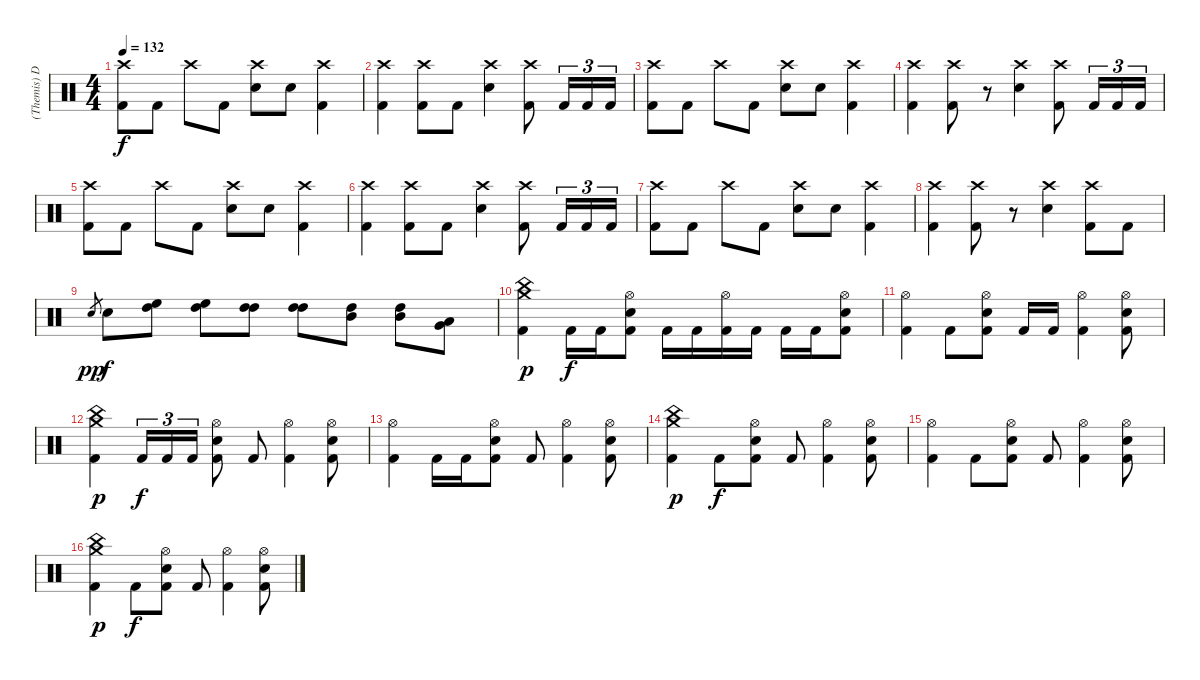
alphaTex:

\track ("(Themis) Drums" "(Themis) D") {instrument percussion}
\staff {score}
\articulation defaults
\ts (4 4)
\tempo 132
\clef neutral
\ks c
("Crash high (hit)" "Kick (hit) 2").8{dy f} "Kick (hit) 2".8 "Crash high (hit)".8 "Kick (hit) 2".8 ("Crash high (hit)" "Electric Snare (hit)").8 "Electric Snare (hit)".8 ("Crash high (hit)" "Kick (hit) 2").4 |
("Crash high (hit)" "Kick (hit) 2").4 ("Crash high (hit)" "Kick (hit) 2").8 "Kick (hit) 2".8 ("Crash high (hit)" "Electric Snare (hit)").4 ("Crash high (hit)" "Kick (hit) 2").8 "Kick (hit) 2".16{tu (3 2)} "Kick (hit) 2".16{tu (3 2)} "Kick (hit) 2".16{tu (3 2)} |
("Crash high (hit)" "Kick (hit) 2").8 "Kick (hit) 2".8 "Crash high (hit)".8 "Kick (hit) 2".8 ("Crash high (hit)" "Electric Snare (hit)").8 "Electric Snare (hit)".8 ("Crash high (hit)" "Kick (hit) 2").4 |
("Crash high (hit)" "Kick (hit) 2").4 ("Crash high (hit)" "Kick (hit) 2").8 r.8 ("Crash high (hit)" "Electric Snare (hit)").4 ("Crash high (hit)" "Kick (hit) 2").8 "Kick (hit) 2".16{tu (3 2)} "Kick (hit) 2".16{tu (3 2)} "Kick (hit) 2".16{tu (3 2)} |
("Crash high (hit)" "Kick (hit) 2").8 "Kick (hit) 2".8 "Crash high (hit)".8 "Kick (hit) 2".8 ("Crash high (hit)" "Electric Snare (hit)").8 "Electric Snare (hit)".8 ("Crash high (hit)" "Kick (hit) 2").4 |
("Crash high (hit)" "Kick (hit) 2").4 ("Crash high (hit)" "Kick (hit) 2").8 "Kick (hit) 2".8 ("Crash high (hit)" "Electric Snare (hit)").4 ("Crash high (hit)" "Kick (hit) 2").8 "Kick (hit) 2".16{tu (3 2)} "Kick (hit) 2".16{tu (3 2)} "Kick (hit) 2".16{tu (3 2)} |
("Crash high (hit)" "Kick (hit) 2").8 "Kick (hit) 2".8 "Crash high (hit)".8 "Kick (hit) 2".8 ("Crash high (hit)" "Electric Snare (hit)").8 "Electric Snare (hit)".8 ("Crash high (hit)" "Kick (hit) 2").4 |
("Crash high (hit)" "Kick (hit) 2").4 ("Crash high (hit)" "Kick (hit) 2").8 r.8 ("Crash high (hit)" "Electric Snare (hit)").4 ("Crash high (hit)" "Kick (hit) 2").8 "Kick (hit) 2".8 |
"Electric Snare (hit)".8{gr dy pp} "Electric Snare (hit)".8{dy f} ("High Floor Tom (hit)" "High Tom (hit)").8 ("High Floor Tom (hit)" "High Tom (hit)").8 ("High Tom (hit)" "High Tom (hit)").8 ("High Tom (hit)" "High Tom (hit)").8 ("Mid Tom (hit)" "High Tom (hit)").8 ("Mid Tom (hit)" "High Tom (hit)").8 ("Low Tom (hit)" "Very Low Tom (hit)").8 |
("Crash medium (hit)" "China (hit)" "Kick (hit) 2").4{dy p} "Kick (hit) 2".16{dy f} "Kick (hit) 2".16 ("Hi-Hat (open)" "Electric Snare (hit)" "Kick (hit) 2").8 "Kick (hit) 2".16 "Kick (hit) 2".16 ("Hi-Hat (open)" "Kick (hit) 2").16 "Kick (hit) 2".16 "Kick (hit) 2".16 "Kick (hit) 2".16 ("Hi-Hat (open)" "Electric Snare (hit)" "Kick (hit) 2").8 |
("Hi-Hat (open)" "Kick (hit) 2").4 "Kick (hit) 2".8 ("Hi-Hat (open)" "Electric Snare (hit)" "Kick (hit) 2").8 "Kick (hit) 2".16 "Kick (hit) 2".16 ("Hi-Hat (open)" "Kick (hit) 2").4 ("Hi-Hat (open)" "Electric Snare (hit)" "Kick (hit) 2").8 |
("Crash medium (hit)" "China (hit)" "Kick (hit) 2").4{dy p} "Kick (hit) 2".16{tu (3 2) dy f} "Kick (hit) 2".16{tu (3 2)} "Kick (hit) 2".16{tu (3 2)} ("Hi-Hat (open)" "Electric Snare (hit)" "Kick (hit) 2").8 "Kick (hit) 2".8 ("Hi-Hat (open)" "Kick (hit) 2").4 ("Hi-Hat (open)" "Electric Snare (hit)" "Kick (hit) 2").8 |
("Hi-Hat (open)" "Kick (hit) 2").4 "Kick (hit) 2".16 "Kick (hit) 2".16 ("Hi-Hat (open)" "Electric Snare (hit)" "Kick (hit) 2").8 "Kick (hit) 2".8 ("Hi-Hat (open)" "Kick (hit) 2").4 ("Hi-Hat (open)" "Electric Snare (hit)" "Kick (hit) 2").8 |
("Crash medium (hit)" "China (hit)" "Kick (hit) 2").4{dy p} "Kick (hit) 2".8{dy f} ("Hi-Hat (open)" "Electric Snare (hit)" "Kick (hit) 2").8 "Kick (hit) 2".8 ("Hi-Hat (open)" "Kick (hit) 2").4 ("Hi-Hat (open)" "Electric Snare (hit)" "Kick (hit) 2").8 |
("Hi-Hat (open)" "Kick (hit) 2").4 "Kick (hit) 2".8 ("Hi-Hat (open)" "Electric Snare (hit)" "Kick (hit) 2").8 "Kick (hit) 2".8 ("Hi-Hat (open)" "Kick (hit) 2").4 ("Hi-Hat (open)" "Electric Snare (hit)" "Kick (hit) 2").8 |
("Crash medium (hit)" "China (hit)" "Kick (hit) 2").4{dy p} "Kick (hit) 2".8{dy f} ("Hi-Hat (open)" "Electric Snare (hit)" "Kick (hit) 2").8 "Kick (hit) 2".8 ("Hi-Hat (open)" "Kick (hit) 2").4 ("Hi-Hat (open)" "Electric Snare (hit)" "Kick (hit) 2").8
